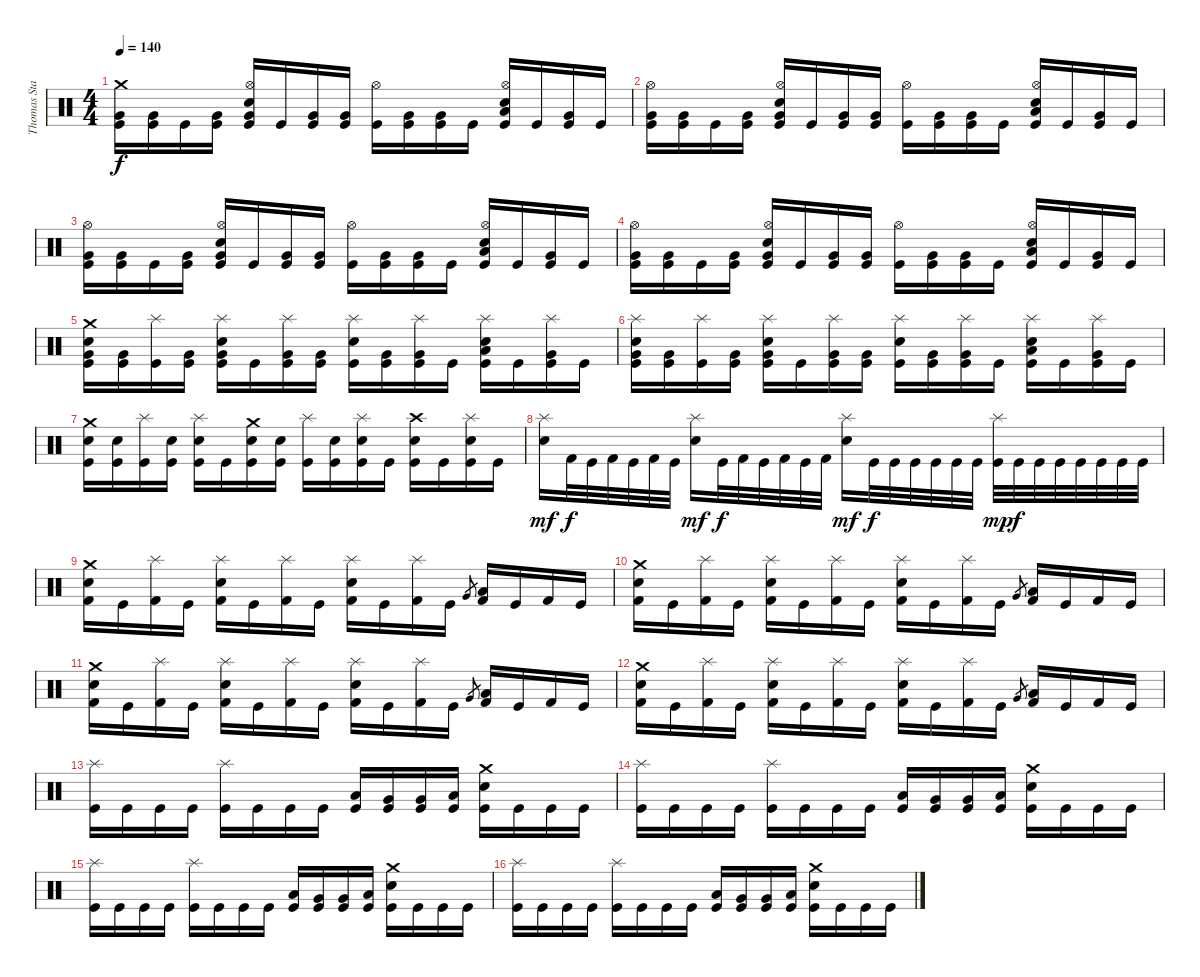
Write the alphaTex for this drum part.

\track ("Thomas Stauch" "Thomas Sta") {instrument percussion}
\staff {score}
\articulation defaults
\ts (4 4)
\tempo 140
\clef neutral
\ks c
("Crash medium (hit)" "Very Low Tom (hit)" "Kick (hit)").16{dy f} ("Very Low Tom (hit)" "Kick (hit)").16 "Kick (hit)".16 ("Very Low Tom (hit)" "Kick (hit)").16 ("Hi-Hat (open)" "Electric Snare (hit)" "Very Low Tom (hit)" "Kick (hit)").16 "Kick (hit)".16 ("Very Low Tom (hit)" "Kick (hit)").16 ("Very Low Tom (hit)" "Kick (hit)").16 ("Hi-Hat (open)" "Kick (hit)").16 ("Very Low Tom (hit)" "Kick (hit)").16 ("Very Low Tom (hit)" "Kick (hit)").16 "Kick (hit)".16 ("Hi-Hat (open)" "Electric Snare (hit)" "Low Tom (hit)" "Kick (hit)").16 "Kick (hit)".16 ("Very Low Tom (hit)" "Kick (hit)").16 "Kick (hit)".16 |
("Hi-Hat (open)" "Very Low Tom (hit)" "Kick (hit)").16 ("Very Low Tom (hit)" "Kick (hit)").16 "Kick (hit)".16 ("Very Low Tom (hit)" "Kick (hit)").16 ("Hi-Hat (open)" "Electric Snare (hit)" "Very Low Tom (hit)" "Kick (hit)").16 "Kick (hit)".16 ("Very Low Tom (hit)" "Kick (hit)").16 ("Very Low Tom (hit)" "Kick (hit)").16 ("Hi-Hat (open)" "Kick (hit)").16 ("Very Low Tom (hit)" "Kick (hit)").16 ("Very Low Tom (hit)" "Kick (hit)").16 "Kick (hit)".16 ("Hi-Hat (open)" "Electric Snare (hit)" "Low Tom (hit)" "Kick (hit)").16 "Kick (hit)".16 ("Very Low Tom (hit)" "Kick (hit)").16 "Kick (hit)".16 |
("Hi-Hat (open)" "Very Low Tom (hit)" "Kick (hit)").16 ("Very Low Tom (hit)" "Kick (hit)").16 "Kick (hit)".16 ("Very Low Tom (hit)" "Kick (hit)").16 ("Hi-Hat (open)" "Electric Snare (hit)" "Very Low Tom (hit)" "Kick (hit)").16 "Kick (hit)".16 ("Very Low Tom (hit)" "Kick (hit)").16 ("Very Low Tom (hit)" "Kick (hit)").16 ("Hi-Hat (open)" "Kick (hit)").16 ("Very Low Tom (hit)" "Kick (hit)").16 ("Very Low Tom (hit)" "Kick (hit)").16 "Kick (hit)".16 ("Hi-Hat (open)" "Electric Snare (hit)" "Low Tom (hit)" "Kick (hit)").16 "Kick (hit)".16 ("Very Low Tom (hit)" "Kick (hit)").16 "Kick (hit)".16 |
("Hi-Hat (open)" "Very Low Tom (hit)" "Kick (hit)").16 ("Very Low Tom (hit)" "Kick (hit)").16 "Kick (hit)".16 ("Very Low Tom (hit)" "Kick (hit)").16 ("Hi-Hat (open)" "Electric Snare (hit)" "Very Low Tom (hit)" "Kick (hit)").16 "Kick (hit)".16 ("Very Low Tom (hit)" "Kick (hit)").16 ("Very Low Tom (hit)" "Kick (hit)").16 ("Hi-Hat (open)" "Kick (hit)").16 ("Very Low Tom (hit)" "Kick (hit)").16 ("Very Low Tom (hit)" "Kick (hit)").16 "Kick (hit)".16 ("Hi-Hat (open)" "Electric Snare (hit)" "Low Tom (hit)" "Kick (hit)").16 "Kick (hit)".16 ("Very Low Tom (hit)" "Kick (hit)").16 "Kick (hit)".16 |
("Crash medium (hit)" "Electric Snare (hit)" "Very Low Tom (hit)" "Kick (hit)").16 ("Very Low Tom (hit)" "Kick (hit)").16 ("Splash (hit)" "Kick (hit)").16 ("Very Low Tom (hit)" "Kick (hit)").16 ("Splash (hit)" "Electric Snare (hit)" "Very Low Tom (hit)" "Kick (hit)").16 "Kick (hit)".16 ("Splash (hit)" "Very Low Tom (hit)" "Kick (hit)").16 ("Very Low Tom (hit)" "Kick (hit)").16 ("Splash (hit)" "Electric Snare (hit)" "Kick (hit)").16 ("Very Low Tom (hit)" "Kick (hit)").16 ("Splash (hit)" "Very Low Tom (hit)" "Kick (hit)").16 "Kick (hit)".16 ("Splash (hit)" "Electric Snare (hit)" "Low Tom (hit)" "Kick (hit)").16 "Kick (hit)".16 ("Splash (hit)" "Very Low Tom (hit)" "Kick (hit)").16 "Kick (hit)".16 |
("Splash (hit)" "Electric Snare (hit)" "Very Low Tom (hit)" "Kick (hit)").16 ("Very Low Tom (hit)" "Kick (hit)").16 ("Splash (hit)" "Kick (hit)").16 ("Very Low Tom (hit)" "Kick (hit)").16 ("Splash (hit)" "Electric Snare (hit)" "Very Low Tom (hit)" "Kick (hit)").16 "Kick (hit)".16 ("Splash (hit)" "Very Low Tom (hit)" "Kick (hit)").16 ("Very Low Tom (hit)" "Kick (hit)").16 ("Splash (hit)" "Electric Snare (hit)" "Kick (hit)").16 ("Very Low Tom (hit)" "Kick (hit)").16 ("Splash (hit)" "Very Low Tom (hit)" "Kick (hit)").16 "Kick (hit)".16 ("Splash (hit)" "Electric Snare (hit)" "Low Tom (hit)" "Kick (hit)").16 "Kick (hit)".16 ("Splash (hit)" "Very Low Tom (hit)" "Kick (hit)").16 "Kick (hit)".16 |
("Crash medium (hit)" "Electric Snare (hit)" "Kick (hit)").16 ("Electric Snare (hit)" "Kick (hit)").16 ("Splash (hit)" "Kick (hit)").16 ("Electric Snare (hit)" "Kick (hit)").16 ("Splash (hit)" "Electric Snare (hit)" "Kick (hit)").16 "Kick (hit)".16 ("Crash medium (hit)" "Electric Snare (hit)" "Kick (hit)").16 ("Electric Snare (hit)" "Kick (hit)").16 ("Splash (hit)" "Kick (hit)").16 ("Electric Snare (hit)" "Kick (hit)").16 ("Splash (hit)" "Electric Snare (hit)" "Kick (hit)").16 "Kick (hit)".16 ("Crash high (hit)" "Electric Snare (hit)" "Kick (hit)").16 "Kick (hit)".16 ("Splash (hit)" "Electric Snare (hit)" "Kick (hit)").16 "Kick (hit)".16 |
("Splash (hit)" "Electric Snare (hit)").16{dy mf} "Kick (hit) 2".32{dy f} "Kick (hit)".32 "Kick (hit) 2".32 "Kick (hit)".32 "Kick (hit) 2".32 "Kick (hit)".32 ("Splash (hit)" "Electric Snare (hit)").16{dy mf} "Kick (hit)".32{dy f} "Kick (hit) 2".32 "Kick (hit)".32 "Kick (hit) 2".32 "Kick (hit)".32 "Kick (hit) 2".32 ("Splash (hit)" "Electric Snare (hit)").16{dy mf} "Kick (hit)".32{dy f} "Kick (hit)".32 "Kick (hit)".32 "Kick (hit)".32 "Kick (hit)".32 "Kick (hit)".32 ("Splash (hit)" "Kick (hit)").32{dy mp} "Kick (hit)".32{dy f} "Kick (hit)".32 "Kick (hit)".32 "Kick (hit)".32 "Kick (hit)".32 "Kick (hit)".32 "Kick (hit)".32 |
("Crash medium (hit)" "Electric Snare (hit)" "Kick (hit) 2").16 "Kick (hit)".16 ("Splash (hit)" "Kick (hit) 2").16 "Kick (hit)".16 ("Splash (hit)" "Electric Snare (hit)" "Kick (hit) 2").16 "Kick (hit)".16 ("Splash (hit)" "Kick (hit) 2").16 "Kick (hit)".16 ("Splash (hit)" "Electric Snare (hit)" "Kick (hit) 2").16 "Kick (hit)".16 ("Splash (hit)" "Kick (hit) 2").16 "Kick (hit)".16 "Very Low Tom (hit)".8{gr} ("Low Tom (hit)" "Kick (hit) 2").16 "Kick (hit)".16 "Kick (hit) 2".16 "Kick (hit)".16 |
("Crash medium (hit)" "Electric Snare (hit)" "Kick (hit) 2").16 "Kick (hit)".16 ("Splash (hit)" "Kick (hit) 2").16 "Kick (hit)".16 ("Splash (hit)" "Electric Snare (hit)" "Kick (hit) 2").16 "Kick (hit)".16 ("Splash (hit)" "Kick (hit) 2").16 "Kick (hit)".16 ("Splash (hit)" "Electric Snare (hit)" "Kick (hit) 2").16 "Kick (hit)".16 ("Splash (hit)" "Kick (hit) 2").16 "Kick (hit)".16 "Very Low Tom (hit)".8{gr} ("Low Tom (hit)" "Kick (hit) 2").16 "Kick (hit)".16 "Kick (hit) 2".16 "Kick (hit)".16 |
("Crash medium (hit)" "Electric Snare (hit)" "Kick (hit) 2").16 "Kick (hit)".16 ("Splash (hit)" "Kick (hit) 2").16 "Kick (hit)".16 ("Splash (hit)" "Electric Snare (hit)" "Kick (hit) 2").16 "Kick (hit)".16 ("Splash (hit)" "Kick (hit) 2").16 "Kick (hit)".16 ("Splash (hit)" "Electric Snare (hit)" "Kick (hit) 2").16 "Kick (hit)".16 ("Splash (hit)" "Kick (hit) 2").16 "Kick (hit)".16 "Very Low Tom (hit)".8{gr} ("Low Tom (hit)" "Kick (hit) 2").16 "Kick (hit)".16 "Kick (hit) 2".16 "Kick (hit)".16 |
("Crash medium (hit)" "Electric Snare (hit)" "Kick (hit) 2").16 "Kick (hit)".16 ("Splash (hit)" "Kick (hit) 2").16 "Kick (hit)".16 ("Splash (hit)" "Electric Snare (hit)" "Kick (hit) 2").16 "Kick (hit)".16 ("Splash (hit)" "Kick (hit) 2").16 "Kick (hit)".16 ("Splash (hit)" "Electric Snare (hit)" "Kick (hit) 2").16 "Kick (hit)".16 ("Splash (hit)" "Kick (hit) 2").16 "Kick (hit)".16 "Very Low Tom (hit)".8{gr} ("Low Tom (hit)" "Kick (hit) 2").16 "Kick (hit)".16 "Kick (hit) 2".16 "Kick (hit)".16 |
("Splash (hit)" "Kick (hit)").16 "Kick (hit)".16 "Kick (hit)".16 "Kick (hit)".16 ("Splash (hit)" "Kick (hit)").16 "Kick (hit)".16 "Kick (hit)".16 "Kick (hit)".16 ("Low Tom (hit)" "Kick (hit)").16 ("Very Low Tom (hit)" "Kick (hit)").16 ("Very Low Tom (hit)" "Kick (hit)").16 ("Low Floor Tom (hit)" "Kick (hit)").16 ("Crash medium (hit)" "Electric Snare (hit)" "Kick (hit)").16 "Kick (hit)".16 "Kick (hit)".16 "Kick (hit)".16 |
("Splash (hit)" "Kick (hit)").16 "Kick (hit)".16 "Kick (hit)".16 "Kick (hit)".16 ("Splash (hit)" "Kick (hit)").16 "Kick (hit)".16 "Kick (hit)".16 "Kick (hit)".16 ("Low Tom (hit)" "Kick (hit)").16 ("Very Low Tom (hit)" "Kick (hit)").16 ("Very Low Tom (hit)" "Kick (hit)").16 ("Low Floor Tom (hit)" "Kick (hit)").16 ("Crash medium (hit)" "Electric Snare (hit)" "Kick (hit)").16 "Kick (hit)".16 "Kick (hit)".16 "Kick (hit)".16 |
("Splash (hit)" "Kick (hit)").16 "Kick (hit)".16 "Kick (hit)".16 "Kick (hit)".16 ("Splash (hit)" "Kick (hit)").16 "Kick (hit)".16 "Kick (hit)".16 "Kick (hit)".16 ("Low Tom (hit)" "Kick (hit)").16 ("Very Low Tom (hit)" "Kick (hit)").16 ("Very Low Tom (hit)" "Kick (hit)").16 ("Low Floor Tom (hit)" "Kick (hit)").16 ("Crash medium (hit)" "Electric Snare (hit)" "Kick (hit)").16 "Kick (hit)".16 "Kick (hit)".16 "Kick (hit)".16 |
("Splash (hit)" "Kick (hit)").16 "Kick (hit)".16 "Kick (hit)".16 "Kick (hit)".16 ("Splash (hit)" "Kick (hit)").16 "Kick (hit)".16 "Kick (hit)".16 "Kick (hit)".16 ("Low Tom (hit)" "Kick (hit)").16 ("Very Low Tom (hit)" "Kick (hit)").16 ("Very Low Tom (hit)" "Kick (hit)").16 ("Low Floor Tom (hit)" "Kick (hit)").16 ("Crash medium (hit)" "Electric Snare (hit)" "Kick (hit)").16 "Kick (hit)".16 "Kick (hit)".16 "Kick (hit)".16
